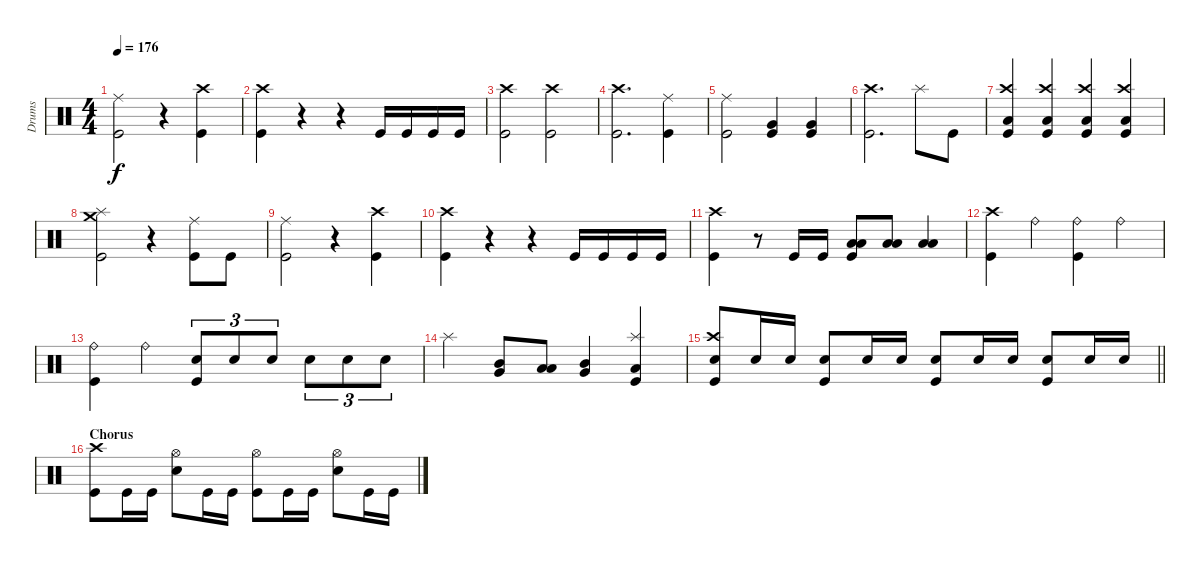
\track ("Drums" "Drums") {instrument percussion}
\staff {score}
\articulation defaults
\ts (4 4)
\tempo 176
\clef neutral
\ks c
("Kick (hit)" "Ride (middle)").2{dy f} r.4 ("Kick (hit)" "Crash high (hit)").4 |
("Kick (hit)" "Crash high (hit)").4 r.4 r.4 "Kick (hit)".16 "Kick (hit)".16 "Kick (hit)".16 "Kick (hit)".16 |
("Kick (hit)" "Crash high (hit)").2 ("Kick (hit)" "Crash high (hit)").2 |
("Kick (hit)" "Crash high (hit)").2{d} ("Kick (hit)" "Ride (middle)").4 |
("Kick (hit)" "Ride (middle)").2 ("Kick (hit)" "Very Low Tom (hit)").4 ("Kick (hit)" "Very Low Tom (hit)").4 |
("Crash high (hit)" "Kick (hit)").2{d} "Splash (hit)".8 "Kick (hit)".8 |
("Kick (hit)" "Crash high (hit)" "Low Tom (hit)").4 ("Kick (hit)" "Crash high (hit)" "Low Tom (hit)").4 ("Kick (hit)" "Crash high (hit)" "Low Tom (hit)").4 ("Kick (hit)" "Crash high (hit)" "Low Tom (hit)").4 |
("Splash (hit)" "Kick (hit)" "Crash medium (hit)").2 r.4 ("Kick (hit)" "Ride (middle)").8 "Kick (hit)".8 |
("Kick (hit)" "Ride (middle)").2 r.4 ("Kick (hit)" "Crash high (hit)").4 |
("Kick (hit)" "Crash high (hit)").4 r.4 r.4 "Kick (hit)".16 "Kick (hit)".16 "Kick (hit)".16 "Kick (hit)".16 |
("Crash high (hit)" "Kick (hit)").4 r.8 "Kick (hit)".16 "Kick (hit)".16 ("Kick (hit)" "Low Floor Tom (hit)" "Low Tom (hit)").8 ("Low Floor Tom (hit)" "Low Tom (hit)").8 ("Low Tom (hit)" "Low Floor Tom (hit)").4 |
("Crash high (hit)" "Kick (hit)").4 "Ride (bell)".4 ("Ride (bell)" "Kick (hit)").4 "Ride (bell)".4 |
("Ride (bell)" "Kick (hit)").4 "Ride (bell)".4 ("Snare (hit) 2" "Kick (hit)").8{tu (3 2)} "Snare (hit) 2".8{tu (3 2)} "Snare (hit) 2".8{tu (3 2)} "Snare (hit) 2".8{tu (3 2)} "Snare (hit) 2".8{tu (3 2)} "Snare (hit) 2".8{tu (3 2)} |
"Splash (hit)".4 ("Mid Tom (hit)" "Very Low Tom (hit)").8 ("Low Tom (hit)" "Low Floor Tom (hit)").8 ("Mid Tom (hit)" "Very Low Tom (hit)").4 ("Low Tom (hit)" "Splash (hit)" "Kick (hit)").4 |
\barLineRight lightlight
("Snare (hit) 2" "Crash high (hit)" "Kick (hit)").8 "Snare (hit) 2".16 "Snare (hit) 2".16 ("Snare (hit) 2" "Kick (hit)").8 "Snare (hit) 2".16 "Snare (hit) 2".16 ("Snare (hit) 2" "Kick (hit)").8 "Snare (hit) 2".16 "Snare (hit) 2".16 ("Snare (hit) 2" "Kick (hit)").8 "Snare (hit) 2".16 "Snare (hit) 2".16 |
\section ("" "Chorus")
("Crash high (hit)" "Kick (hit)").8 "Kick (hit)".16 "Kick (hit)".16 ("Hi-Hat (open)" "Snare (hit) 2").8 "Kick (hit)".16 "Kick (hit)".16 ("Hi-Hat (open)" "Kick (hit)").8 "Kick (hit)".16 "Kick (hit)".16 ("Hi-Hat (open)" "Snare (hit) 2").8 "Kick (hit)".16 "Kick (hit)".16
